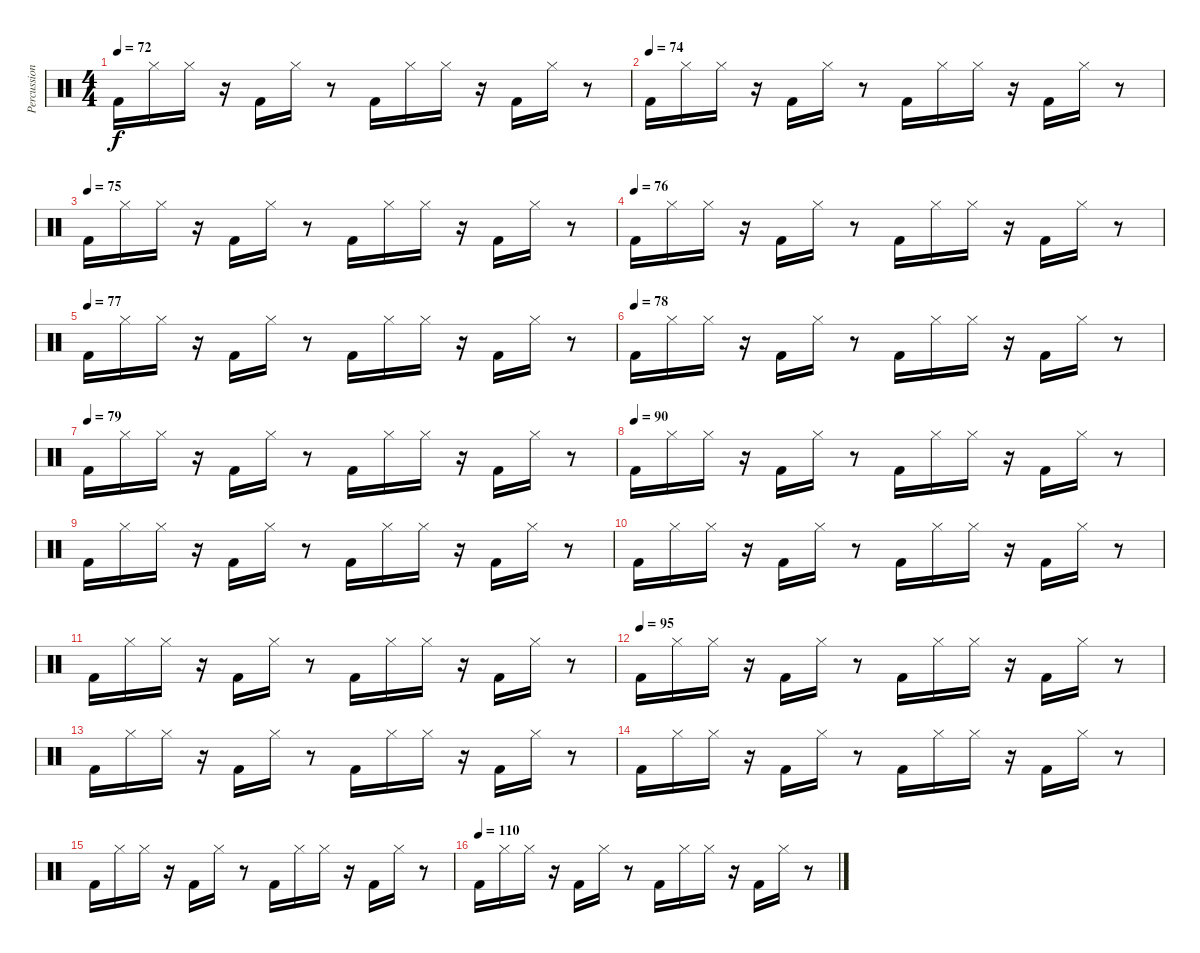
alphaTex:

\track ("Percussion" "Percussion") {instrument percussion}
\staff {score}
\articulation defaults
\ts (4 4)
\tempo 72
\tempo 73
\tempo 72
\clef neutral
\ks c "Kick (hit) 2".16{dy f} "Hi-Hat (closed)".16 "Hi-Hat (closed)".16
r.16 "Kick (hit) 2".16 "Hi-Hat (closed)".16 r.8 "Kick (hit) 2".16 "Hi-Hat (closed)".16 "Hi-Hat (closed)".16 r.16 "Kick (hit) 2".16 "Hi-Hat (closed)".16 r.8 |
\tempo (74)
"Kick (hit) 2".16 "Hi-Hat (closed)".16 "Hi-Hat (closed)".16 r.16 "Kick (hit) 2".16 "Hi-Hat (closed)".16 r.8 "Kick (hit) 2".16 "Hi-Hat (closed)".16 "Hi-Hat (closed)".16 r.16 "Kick (hit) 2".16 "Hi-Hat (closed)".16 r.8 |
\tempo (75)
"Kick (hit) 2".16 "Hi-Hat (closed)".16 "Hi-Hat (closed)".16 r.16 "Kick (hit) 2".16 "Hi-Hat (closed)".16 r.8 "Kick (hit) 2".16 "Hi-Hat (closed)".16 "Hi-Hat (closed)".16 r.16 "Kick (hit) 2".16 "Hi-Hat (closed)".16 r.8 |
\tempo (76)
"Kick (hit) 2".16 "Hi-Hat (closed)".16 "Hi-Hat (closed)".16 r.16 "Kick (hit) 2".16 "Hi-Hat (closed)".16 r.8 "Kick (hit) 2".16 "Hi-Hat (closed)".16 "Hi-Hat (closed)".16 r.16 "Kick (hit) 2".16 "Hi-Hat (closed)".16 r.8 |
\tempo (77)
"Kick (hit) 2".16 "Hi-Hat (closed)".16 "Hi-Hat (closed)".16 r.16 "Kick (hit) 2".16 "Hi-Hat (closed)".16 r.8 "Kick (hit) 2".16 "Hi-Hat (closed)".16 "Hi-Hat (closed)".16 r.16 "Kick (hit) 2".16 "Hi-Hat (closed)".16 r.8 |
\tempo (78)
"Kick (hit) 2".16 "Hi-Hat (closed)".16 "Hi-Hat (closed)".16 r.16 "Kick (hit) 2".16 "Hi-Hat (closed)".16 r.8 "Kick (hit) 2".16 "Hi-Hat (closed)".16 "Hi-Hat (closed)".16 r.16 "Kick (hit) 2".16 "Hi-Hat (closed)".16 r.8 |
\tempo (79)
"Kick (hit) 2".16 "Hi-Hat (closed)".16 "Hi-Hat (closed)".16 r.16 "Kick (hit) 2".16 "Hi-Hat (closed)".16 r.8 "Kick (hit) 2".16 "Hi-Hat (closed)".16 "Hi-Hat (closed)".16 r.16 "Kick (hit) 2".16 "Hi-Hat (closed)".16 r.8 |
\tempo (90)
"Kick (hit) 2".16 "Hi-Hat (closed)".16 "Hi-Hat (closed)".16 r.16 "Kick (hit) 2".16 "Hi-Hat (closed)".16 r.8 "Kick (hit) 2".16 "Hi-Hat (closed)".16 "Hi-Hat (closed)".16 r.16 "Kick (hit) 2".16 "Hi-Hat (closed)".16 r.8 |
"Kick (hit) 2".16 "Hi-Hat (closed)".16 "Hi-Hat (closed)".16 r.16 "Kick (hit) 2".16 "Hi-Hat (closed)".16 r.8 "Kick (hit) 2".16 "Hi-Hat (closed)".16 "Hi-Hat (closed)".16 r.16 "Kick (hit) 2".16 "Hi-Hat (closed)".16 r.8 |
"Kick (hit) 2".16 "Hi-Hat (closed)".16 "Hi-Hat (closed)".16 r.16 "Kick (hit) 2".16 "Hi-Hat (closed)".16 r.8 "Kick (hit) 2".16 "Hi-Hat (closed)".16 "Hi-Hat (closed)".16 r.16 "Kick (hit) 2".16 "Hi-Hat (closed)".16 r.8 |
"Kick (hit) 2".16 "Hi-Hat (closed)".16 "Hi-Hat (closed)".16 r.16 "Kick (hit) 2".16 "Hi-Hat (closed)".16 r.8 "Kick (hit) 2".16 "Hi-Hat (closed)".16 "Hi-Hat (closed)".16 r.16 "Kick (hit) 2".16 "Hi-Hat (closed)".16 r.8 |
\tempo (95)
"Kick (hit) 2".16 "Hi-Hat (closed)".16 "Hi-Hat (closed)".16 r.16 "Kick (hit) 2".16 "Hi-Hat (closed)".16 r.8 "Kick (hit) 2".16 "Hi-Hat (closed)".16 "Hi-Hat (closed)".16 r.16 "Kick (hit) 2".16 "Hi-Hat (closed)".16 r.8 |
"Kick (hit) 2".16 "Hi-Hat (closed)".16 "Hi-Hat (closed)".16 r.16 "Kick (hit) 2".16 "Hi-Hat (closed)".16 r.8 "Kick (hit) 2".16 "Hi-Hat (closed)".16 "Hi-Hat (closed)".16 r.16 "Kick (hit) 2".16 "Hi-Hat (closed)".16 r.8 |
"Kick (hit) 2".16 "Hi-Hat (closed)".16 "Hi-Hat (closed)".16 r.16 "Kick (hit) 2".16 "Hi-Hat (closed)".16 r.8 "Kick (hit) 2".16 "Hi-Hat (closed)".16 "Hi-Hat (closed)".16 r.16 "Kick (hit) 2".16 "Hi-Hat (closed)".16 r.8 |
"Kick (hit) 2".16 "Hi-Hat (closed)".16 "Hi-Hat (closed)".16 r.16 "Kick (hit) 2".16 "Hi-Hat (closed)".16 r.8 "Kick (hit) 2".16 "Hi-Hat (closed)".16 "Hi-Hat (closed)".16 r.16 "Kick (hit) 2".16 "Hi-Hat (closed)".16 r.8 |
\tempo (110)
"Kick (hit) 2".16 "Hi-Hat (closed)".16 "Hi-Hat (closed)".16 r.16 "Kick (hit) 2".16 "Hi-Hat (closed)".16 r.8 "Kick (hit) 2".16 "Hi-Hat (closed)".16 "Hi-Hat (closed)".16 r.16 "Kick (hit) 2".16 "Hi-Hat (closed)".16 r.8
